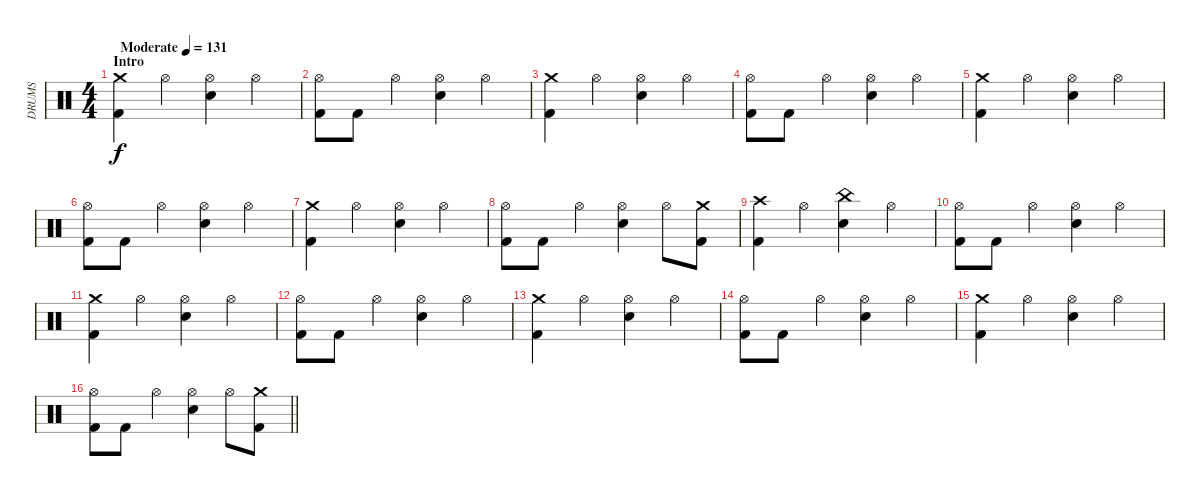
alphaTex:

\track ("DRUMS" "DRUMS") {instrument percussion}
\staff {score}
\articulation defaults
\ts (4 4)
\section ("" "Intro")
\tempo (131 "Moderate")
\clef neutral
\ks c
("Crash medium (hit)" "Kick (hit) 2").4{dy f} "Hi-Hat (open)".4 ("Hi-Hat (open)" "Snare (hit) 2").4 "Hi-Hat (open)".4 |
("Hi-Hat (open)" "Kick (hit) 2").8 "Kick (hit) 2".8 "Hi-Hat (open)".4 ("Hi-Hat (open)" "Snare (hit) 2").4 "Hi-Hat (open)".4 |
("Crash medium (hit)" "Kick (hit) 2").4 "Hi-Hat (open)".4 ("Hi-Hat (open)" "Snare (hit) 2").4 "Hi-Hat (open)".4 |
("Hi-Hat (open)" "Kick (hit) 2").8 "Kick (hit) 2".8 "Hi-Hat (open)".4 ("Hi-Hat (open)" "Snare (hit) 2").4 "Hi-Hat (open)".4 |
("Crash medium (hit)" "Kick (hit) 2").4 "Hi-Hat (open)".4 ("Hi-Hat (open)" "Snare (hit) 2").4 "Hi-Hat (open)".4 |
("Hi-Hat (open)" "Kick (hit) 2").8 "Kick (hit) 2".8 "Hi-Hat (open)".4 ("Hi-Hat (open)" "Snare (hit) 2").4 "Hi-Hat (open)".4 |
("Crash medium (hit)" "Kick (hit) 2").4 "Hi-Hat (open)".4 ("Hi-Hat (open)" "Snare (hit) 2").4 "Hi-Hat (open)".4 |
("Hi-Hat (open)" "Kick (hit) 2").8 "Kick (hit) 2".8 "Hi-Hat (open)".4 ("Hi-Hat (open)" "Snare (hit) 2").4 "Hi-Hat (open)".8 ("Crash medium (hit)" "Kick (hit) 2").8 |
("Crash high (hit)" "Kick (hit) 2").4 "Hi-Hat (open)".4 ("China (hit)" "Snare (hit) 2").4 "Hi-Hat (open)".4 |
("Hi-Hat (open)" "Kick (hit) 2").8 "Kick (hit) 2".8 "Hi-Hat (open)".4 ("Hi-Hat (open)" "Snare (hit) 2").4 "Hi-Hat (open)".4 |
("Crash medium (hit)" "Kick (hit) 2").4 "Hi-Hat (open)".4 ("Hi-Hat (open)" "Snare (hit) 2").4 "Hi-Hat (open)".4 |
("Hi-Hat (open)" "Kick (hit) 2").8 "Kick (hit) 2".8 "Hi-Hat (open)".4 ("Hi-Hat (open)" "Snare (hit) 2").4 "Hi-Hat (open)".4 |
("Crash medium (hit)" "Kick (hit) 2").4 "Hi-Hat (open)".4 ("Hi-Hat (open)" "Snare (hit) 2").4 "Hi-Hat (open)".4 |
("Hi-Hat (open)" "Kick (hit) 2").8 "Kick (hit) 2".8 "Hi-Hat (open)".4 ("Hi-Hat (open)" "Snare (hit) 2").4 "Hi-Hat (open)".4 |
("Crash medium (hit)" "Kick (hit) 2").4 "Hi-Hat (open)".4 ("Hi-Hat (open)" "Snare (hit) 2").4 "Hi-Hat (open)".4 |
\barLineRight lightlight
("Hi-Hat (open)" "Kick (hit) 2").8 "Kick (hit) 2".8 "Hi-Hat (open)".4 ("Hi-Hat (open)" "Snare (hit) 2").4 "Hi-Hat (open)".8 ("Crash medium (hit)" "Kick (hit) 2").8
